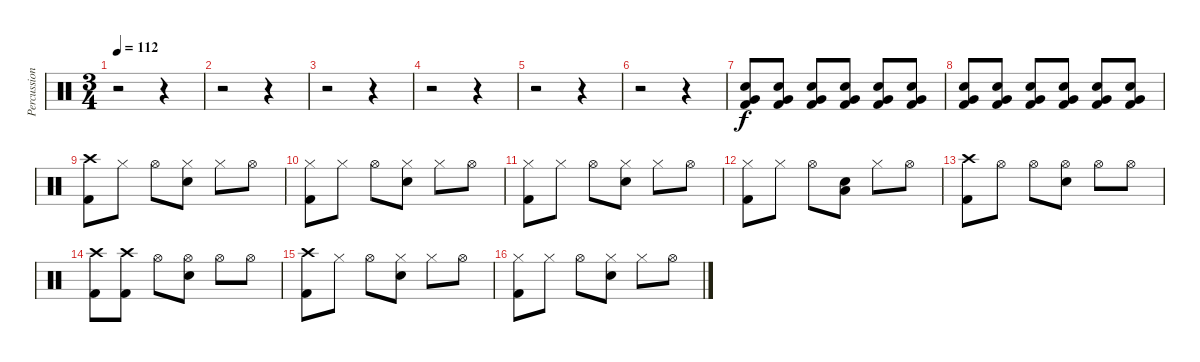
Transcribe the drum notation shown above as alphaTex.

\track ("Percussions" "Percussion") {instrument percussion}
\staff {score}
\articulation defaults
\ts (3 4)
\tempo 112
\clef neutral
\ks c
r.2{dy f} r.4 |
r.2 r.4 |
r.2 r.4 |
r.2 r.4 |
r.2 r.4 |
r.2 r.4 |
("Kick (hit) 2" "Very Low Tom (hit)" "Electric Snare (hit)").8 ("Kick (hit) 2" "Very Low Tom (hit)" "Electric Snare (hit)").8 ("Kick (hit) 2" "Very Low Tom (hit)" "Electric Snare (hit)").8 ("Kick (hit) 2" "Very Low Tom (hit)" "Electric Snare (hit)").8 ("Kick (hit) 2" "Very Low Tom (hit)" "Electric Snare (hit)").8 ("Kick (hit) 2" "Very Low Tom (hit)" "Electric Snare (hit)").8 |
("Kick (hit) 2" "Very Low Tom (hit)" "Electric Snare (hit)").8 ("Kick (hit) 2" "Very Low Tom (hit)" "Electric Snare (hit)").8 ("Kick (hit) 2" "Very Low Tom (hit)" "Electric Snare (hit)").8 ("Kick (hit) 2" "Very Low Tom (hit)" "Electric Snare (hit)").8 ("Kick (hit) 2" "Very Low Tom (hit)" "Electric Snare (hit)").8 ("Kick (hit) 2" "Very Low Tom (hit)" "Electric Snare (hit)").8 |
("Kick (hit) 2" "Crash high (hit)").8 "Hi-Hat (closed)".8 "Hi-Hat (open)".8 ("Electric Snare (hit)" "Hi-Hat (closed)").8 "Hi-Hat (closed)".8 "Hi-Hat (open)".8 |
("Kick (hit) 2" "Hi-Hat (closed)").8 "Hi-Hat (closed)".8 "Hi-Hat (open)".8 ("Electric Snare (hit)" "Hi-Hat (closed)").8 "Hi-Hat (closed)".8 "Hi-Hat (open)".8 |
("Kick (hit) 2" "Hi-Hat (closed)").8 "Hi-Hat (closed)".8 "Hi-Hat (open)".8 ("Electric Snare (hit)" "Hi-Hat (closed)").8 "Hi-Hat (closed)".8 "Hi-Hat (open)".8 |
("Kick (hit) 2" "Hi-Hat (closed)").8 "Hi-Hat (closed)".8 "Hi-Hat (open)".8 ("Electric Snare (hit)" "Low Floor Tom (hit)").8 "Hi-Hat (closed)".8 "Hi-Hat (open)".8 |
("Kick (hit) 2" "Crash high (hit)").8 "Hi-Hat (open)".8 "Hi-Hat (open)".8 ("Electric Snare (hit)" "Hi-Hat (open)").8 "Hi-Hat (open)".8 "Hi-Hat (open)".8 |
("Kick (hit) 2" "Crash high (hit)").8 ("Kick (hit) 2" "Crash high (hit)").8 "Hi-Hat (open)".8 ("Electric Snare (hit)" "Hi-Hat (open)").8 "Hi-Hat (open)".8 "Hi-Hat (open)".8 |
("Kick (hit) 2" "Crash high (hit)").8 "Hi-Hat (closed)".8 "Hi-Hat (open)".8 ("Electric Snare (hit)" "Hi-Hat (closed)").8 "Hi-Hat (closed)".8 "Hi-Hat (open)".8 |
("Kick (hit) 2" "Hi-Hat (closed)").8 "Hi-Hat (closed)".8 "Hi-Hat (open)".8 ("Electric Snare (hit)" "Hi-Hat (closed)").8 "Hi-Hat (closed)".8 "Hi-Hat (open)".8
